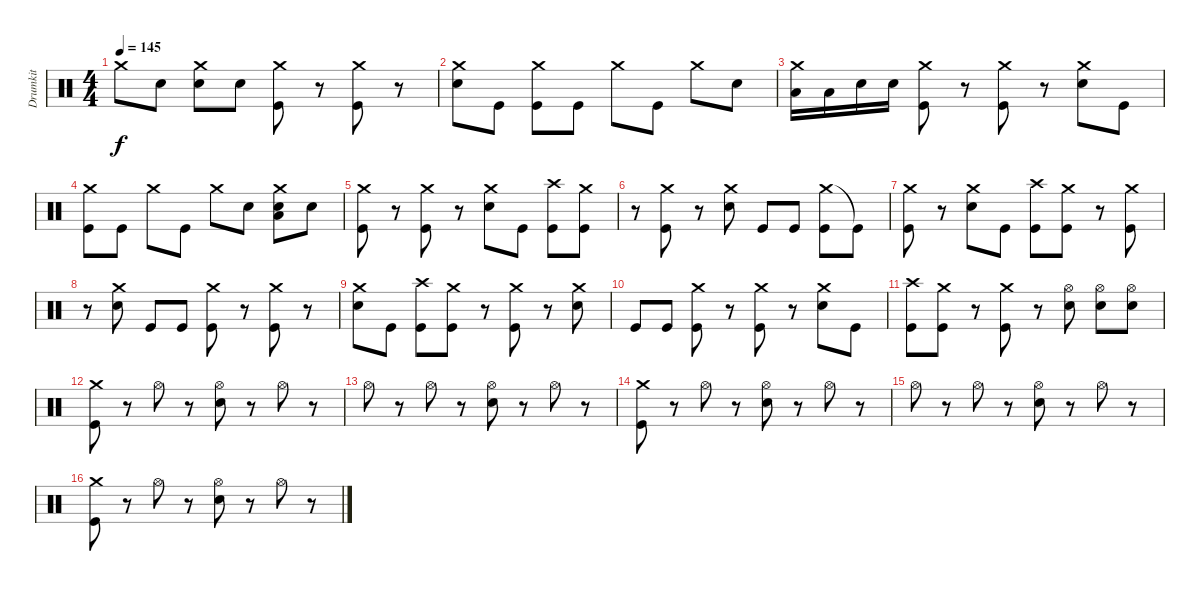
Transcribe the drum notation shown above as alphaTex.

\track ("Drumkit" "Drumkit") {instrument percussion}
\staff {score}
\articulation defaults
\ts (4 4)
\tempo 145
\clef neutral
\ks c "Crash medium (hit)".8{dy f} "Electric Snare (hit)".8
("Crash medium (hit)" "Electric Snare (hit)").8 "Electric Snare (hit)".8 ("Crash medium (hit)" "Kick (hit)").8 r.8 ("Crash medium (hit)" "Kick (hit)").8 r.8 |
("Crash medium (hit)" "Electric Snare (hit)").8 "Kick (hit)".8 ("Crash medium (hit)" "Kick (hit)").8 "Kick (hit)".8 "Crash medium (hit)".8 "Kick (hit)".8 "Crash medium (hit)".8 "Electric Snare (hit)".8 |
("Crash medium (hit)" "Low Tom (hit)").16 "Low Tom (hit)".16 "Electric Snare (hit)".16 "Electric Snare (hit)".16 ("Crash medium (hit)" "Kick (hit)").8 r.8 ("Crash medium (hit)" "Kick (hit)").8 r.8 ("Crash medium (hit)" "Electric Snare (hit)").8 "Kick (hit)".8 |
("Crash medium (hit)" "Kick (hit)").8 "Kick (hit)".8 "Crash medium (hit)".8 "Kick (hit)".8 "Crash medium (hit)".8 "Electric Snare (hit)".8 ("Crash medium (hit)" "Electric Snare (hit)" "Low Tom (hit)").8 "Electric Snare (hit)".8 |
("Crash medium (hit)" "Kick (hit)").8 r.8 ("Crash medium (hit)" "Kick (hit)").8 r.8 ("Crash medium (hit)" "Electric Snare (hit)").8 "Kick (hit)".8 ("Crash high (hit)" "Kick (hit)").8 ("Crash medium (hit)" "Kick (hit)").8 |
r.8 ("Crash medium (hit)" "Kick (hit)").8 r.8 ("Crash medium (hit)" "Electric Snare (hit)").8 "Kick (hit)".8 "Kick (hit)".8 ("Crash medium (hit)" "Kick (hit)").8 "Kick (hit)"{t}.8 |
("Crash medium (hit)" "Kick (hit)").8 r.8 ("Crash medium (hit)" "Electric Snare (hit)").8 "Kick (hit)".8 ("Crash high (hit)" "Kick (hit)").8 ("Crash medium (hit)" "Kick (hit)").8 r.8 ("Crash medium (hit)" "Kick (hit)").8 |
r.8 ("Crash medium (hit)" "Electric Snare (hit)").8 "Kick (hit)".8 "Kick (hit)".8 ("Crash medium (hit)" "Kick (hit)").8 r.8 ("Crash medium (hit)" "Kick (hit)").8 r.8 |
("Crash medium (hit)" "Electric Snare (hit)").8 "Kick (hit)".8 ("Crash high (hit)" "Kick (hit)").8 ("Crash medium (hit)" "Kick (hit)").8 r.8 ("Crash medium (hit)" "Kick (hit)").8 r.8 ("Crash medium (hit)" "Electric Snare (hit)").8 |
"Kick (hit)".8 "Kick (hit)".8 ("Crash medium (hit)" "Kick (hit)").8 r.8 ("Crash medium (hit)" "Kick (hit)").8 r.8 ("Crash medium (hit)" "Electric Snare (hit)").8 "Kick (hit)".8 |
("Crash high (hit)" "Kick (hit)").8 ("Crash medium (hit)" "Kick (hit)").8 r.8 ("Crash medium (hit)" "Kick (hit)").8 r.8 ("Hi-Hat (open)" "Electric Snare (hit)").8 ("Hi-Hat (open)" "Electric Snare (hit)").8 ("Hi-Hat (open)" "Electric Snare (hit)").8 |
("Crash medium (hit)" "Kick (hit)").8 r.8 "Hi-Hat (open)".8 r.8 ("Hi-Hat (open)" "Electric Snare (hit)").8 r.8 "Hi-Hat (open)".8 r.8 |
"Hi-Hat (open)".8 r.8 "Hi-Hat (open)".8 r.8 ("Hi-Hat (open)" "Electric Snare (hit)").8 r.8 "Hi-Hat (open)".8 r.8 |
("Crash medium (hit)" "Kick (hit)").8 r.8 "Hi-Hat (open)".8 r.8 ("Hi-Hat (open)" "Electric Snare (hit)").8 r.8 "Hi-Hat (open)".8 r.8 |
"Hi-Hat (open)".8 r.8 "Hi-Hat (open)".8 r.8 ("Hi-Hat (open)" "Electric Snare (hit)").8 r.8 "Hi-Hat (open)".8 r.8 |
("Crash medium (hit)" "Kick (hit)").8 r.8 "Hi-Hat (open)".8 r.8 ("Hi-Hat (open)" "Electric Snare (hit)").8 r.8 "Hi-Hat (open)".8 r.8
